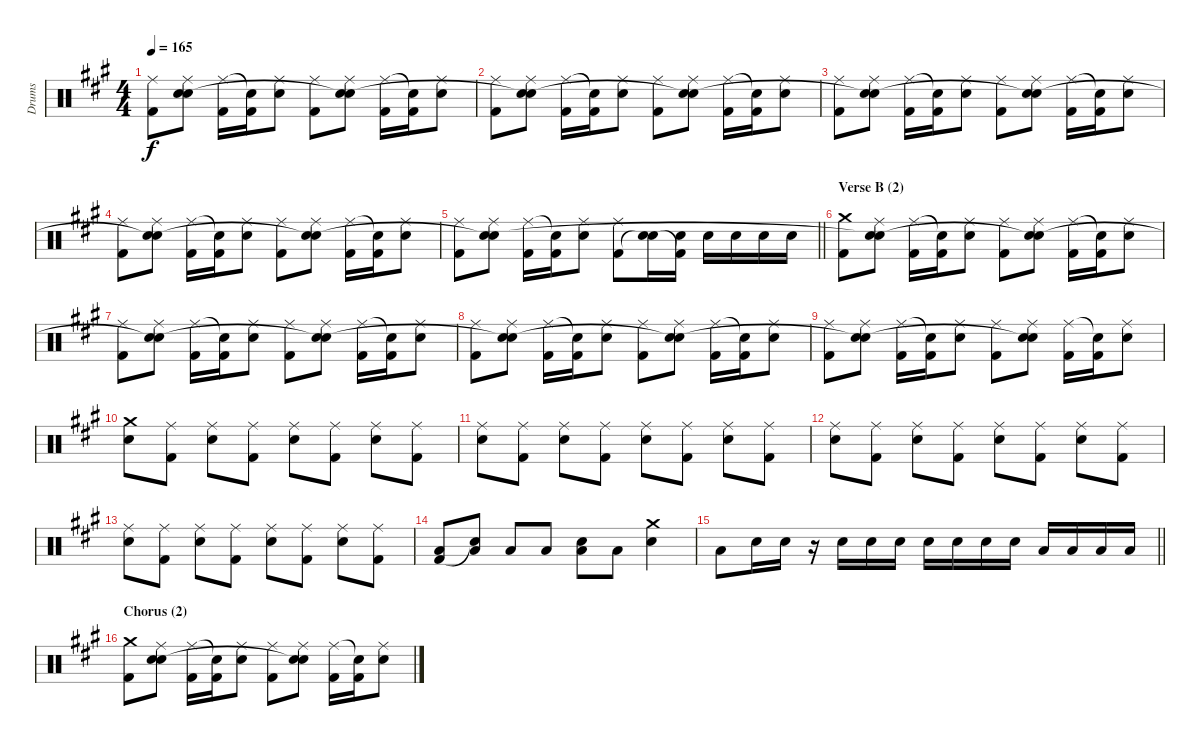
\track ("Drums" "Drums") {instrument percussion}
\staff {score}
\articulation defaults
\ts (4 4)
\tempo 165
\clef neutral
\ks f#minor
("Ride (middle)" "Kick (hit) 2").8{dy f} ("Ride (middle)" "Electric Snare (hit)" "Snare (hit)"{t}).8 ("Ride (middle)" "Kick (hit) 2").16 ("Snare (hit)"{t} "Kick (hit) 2").16 ("Ride (middle)" "Electric Snare (hit)").8 ("Ride (middle)" "Kick (hit) 2").8 ("Ride (middle)" "Electric Snare (hit)" "Snare (hit)"{t}).8 ("Ride (middle)" "Kick (hit) 2").16 ("Snare (hit)"{t} "Kick (hit) 2").16 ("Ride (middle)" "Electric Snare (hit)").8 |
("Ride (middle)" "Kick (hit) 2").8 ("Ride (middle)" "Electric Snare (hit)" "Snare (hit)"{t}).8 ("Ride (middle)" "Kick (hit) 2").16 ("Snare (hit)"{t} "Kick (hit) 2").16 ("Ride (middle)" "Electric Snare (hit)").8 ("Ride (middle)" "Kick (hit) 2").8 ("Ride (middle)" "Electric Snare (hit)" "Snare (hit)"{t}).8 ("Ride (middle)" "Kick (hit) 2").16 ("Snare (hit)"{t} "Kick (hit) 2").16 ("Ride (middle)" "Electric Snare (hit)").8 |
("Ride (middle)" "Kick (hit) 2").8 ("Ride (middle)" "Electric Snare (hit)" "Snare (hit)"{t}).8 ("Ride (middle)" "Kick (hit) 2").16 ("Snare (hit)"{t} "Kick (hit) 2").16 ("Ride (middle)" "Electric Snare (hit)").8 ("Ride (middle)" "Kick (hit) 2").8 ("Ride (middle)" "Electric Snare (hit)" "Snare (hit)"{t}).8 ("Ride (middle)" "Kick (hit) 2").16 ("Snare (hit)"{t} "Kick (hit) 2").16 ("Ride (middle)" "Electric Snare (hit)").8 |
("Ride (middle)" "Kick (hit) 2").8 ("Ride (middle)" "Electric Snare (hit)" "Snare (hit)"{t}).8 ("Ride (middle)" "Kick (hit) 2").16 ("Snare (hit)"{t} "Kick (hit) 2").16 ("Ride (middle)" "Electric Snare (hit)").8 ("Ride (middle)" "Kick (hit) 2").8 ("Ride (middle)" "Electric Snare (hit)" "Snare (hit)"{t}).8 ("Ride (middle)" "Kick (hit) 2").16 ("Snare (hit)"{t} "Kick (hit) 2").16 ("Ride (middle)" "Electric Snare (hit)").8 |
\barLineRight lightlight
("Ride (middle)" "Kick (hit) 2").8 ("Ride (middle)" "Electric Snare (hit)" "Snare (hit)"{t}).8 ("Ride (middle)" "Kick (hit) 2").16 ("Snare (hit)"{t} "Kick (hit) 2").16 ("Ride (middle)" "Electric Snare (hit)").8 ("Ride (middle)" "Kick (hit) 2").8 ("Electric Snare (hit)" "Snare (hit)"{t}).16 ("Electric Snare (hit)" "Kick (hit) 2"{t}).16 "Electric Snare (hit)".16 "Electric Snare (hit)".16 "Electric Snare (hit)".16 "Electric Snare (hit)".16 |
\section ("" "Verse B (2)")
("Crash medium (hit)" "Kick (hit) 2").8 ("Ride (middle)" "Electric Snare (hit)" "Snare (hit)"{t}).8 ("Ride (middle)" "Kick (hit) 2").16 ("Snare (hit)"{t} "Kick (hit) 2").16 ("Ride (middle)" "Electric Snare (hit)").8 ("Ride (middle)" "Kick (hit) 2").8 ("Ride (middle)" "Electric Snare (hit)" "Snare (hit)"{t}).8 ("Ride (middle)" "Kick (hit) 2").16 ("Snare (hit)"{t} "Kick (hit) 2").16 ("Ride (middle)" "Electric Snare (hit)").8 |
("Ride (middle)" "Kick (hit) 2").8 ("Ride (middle)" "Electric Snare (hit)" "Snare (hit)"{t}).8 ("Ride (middle)" "Kick (hit) 2").16 ("Snare (hit)"{t} "Kick (hit) 2").16 ("Ride (middle)" "Electric Snare (hit)").8 ("Ride (middle)" "Kick (hit) 2").8 ("Ride (middle)" "Electric Snare (hit)" "Snare (hit)"{t}).8 ("Ride (middle)" "Kick (hit) 2").16 ("Snare (hit)"{t} "Kick (hit) 2").16 ("Ride (middle)" "Electric Snare (hit)").8 |
("Ride (middle)" "Kick (hit) 2").8 ("Ride (middle)" "Electric Snare (hit)" "Snare (hit)"{t}).8 ("Ride (middle)" "Kick (hit) 2").16 ("Snare (hit)"{t} "Kick (hit) 2").16 ("Ride (middle)" "Electric Snare (hit)").8 ("Ride (middle)" "Kick (hit) 2").8 ("Ride (middle)" "Electric Snare (hit)" "Snare (hit)"{t}).8 ("Ride (middle)" "Kick (hit) 2").16 ("Snare (hit)"{t} "Kick (hit) 2").16 ("Ride (middle)" "Electric Snare (hit)").8 |
("Ride (middle)" "Kick (hit) 2").8 ("Ride (middle)" "Electric Snare (hit)" "Snare (hit)"{t}).8 ("Ride (middle)" "Kick (hit) 2").16 ("Snare (hit)"{t} "Kick (hit) 2").16 ("Ride (middle)" "Electric Snare (hit)").8 ("Ride (middle)" "Kick (hit) 2").8 ("Ride (middle)" "Electric Snare (hit)" "Snare (hit)"{t}).8 ("Ride (middle)" "Kick (hit) 2").16 ("Snare (hit)"{t} "Kick (hit) 2").16 ("Ride (middle)" "Electric Snare (hit)").8 |
("Crash medium (hit)" "Electric Snare (hit)").8 ("Ride (middle)" "Kick (hit) 2").8 ("Ride (middle)" "Electric Snare (hit)").8 ("Ride (middle)" "Kick (hit) 2").8 ("Ride (middle)" "Electric Snare (hit)").8 ("Ride (middle)" "Kick (hit) 2").8 ("Ride (middle)" "Electric Snare (hit)").8 ("Ride (middle)" "Kick (hit) 2").8 |
("Ride (middle)" "Electric Snare (hit)").8 ("Ride (middle)" "Kick (hit) 2").8 ("Ride (middle)" "Electric Snare (hit)").8 ("Ride (middle)" "Kick (hit) 2").8 ("Ride (middle)" "Electric Snare (hit)").8 ("Ride (middle)" "Kick (hit) 2").8 ("Ride (middle)" "Electric Snare (hit)").8 ("Ride (middle)" "Kick (hit) 2").8 |
("Ride (middle)" "Electric Snare (hit)").8 ("Ride (middle)" "Kick (hit) 2").8 ("Ride (middle)" "Electric Snare (hit)").8 ("Ride (middle)" "Kick (hit) 2").8 ("Ride (middle)" "Electric Snare (hit)").8 ("Ride (middle)" "Kick (hit) 2").8 ("Ride (middle)" "Electric Snare (hit)").8 ("Ride (middle)" "Kick (hit) 2").8 |
("Ride (middle)" "Electric Snare (hit)").8 ("Ride (middle)" "Kick (hit) 2").8 ("Ride (middle)" "Electric Snare (hit)").8 ("Ride (middle)" "Kick (hit) 2").8 ("Ride (middle)" "Electric Snare (hit)").8 ("Ride (middle)" "Kick (hit) 2").8 ("Ride (middle)" "Electric Snare (hit)").8 ("Ride (middle)" "Kick (hit) 2").8 |
("Low Floor Tom (hit)" "Kick (hit) 2").8 ("Low Floor Tom (hit)" "Snare (hit)"{t}).8 "Low Floor Tom (hit)".8 "Low Floor Tom (hit)".8 ("Electric Snare (hit)" "Low Floor Tom (hit)").8 "Low Floor Tom (hit)".8 ("Crash medium (hit)" "Electric Snare (hit)").4 |
\barLineRight lightlight "Low Floor Tom (hit)".8 "Electric Snare (hit)".16 "Electric Snare (hit)".16
r.16 "Electric Snare (hit)".16 "Electric Snare (hit)".16 "Electric Snare (hit)".16 "Electric Snare (hit)".16 "Electric Snare (hit)".16 "Electric Snare (hit)".16 "Electric Snare (hit)".16 "Low Tom (hit)".16 "Low Tom (hit)".16 "Low Floor Tom (hit)".16 "Low Floor Tom (hit)".16 |
\section ("" "Chorus (2)")
("Crash medium (hit)" "Kick (hit) 2").8 ("Ride (middle)" "Electric Snare (hit)" "Snare (hit)").8 ("Ride (middle)" "Kick (hit) 2").16 ("Snare (hit)"{t} "Kick (hit) 2").16 ("Ride (middle)" "Electric Snare (hit)").8 ("Ride (middle)" "Kick (hit) 2").8 ("Ride (middle)" "Electric Snare (hit)" "Snare (hit)"{t}).8 ("Ride (middle)" "Kick (hit) 2").16 ("Snare (hit)"{t} "Kick (hit) 2").16 ("Ride (middle)" "Electric Snare (hit)").8
